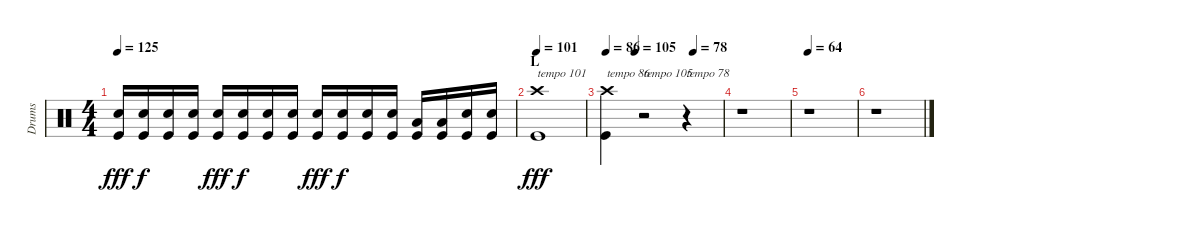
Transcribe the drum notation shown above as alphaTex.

\track ("Drums" "Drums") {instrument percussion}
\staff {score}
\articulation defaults
\ts (4 4)
\tempo 125
\clef neutral
\ks c
("Snare (hit) 2" "Kick (hit)").16{dy fff} ("Snare (hit) 2" "Kick (hit)").16{dy f} ("Snare (hit) 2" "Kick (hit)").16 ("Snare (hit) 2" "Kick (hit)").16 ("Snare (hit) 2" "Kick (hit)").16{dy fff} ("Snare (hit) 2" "Kick (hit)").16{dy f} ("Snare (hit) 2" "Kick (hit)").16 ("Snare (hit) 2" "Kick (hit)").16 ("Snare (hit) 2" "Kick (hit)").16{dy fff} ("Snare (hit) 2" "Kick (hit)").16{dy f} ("Snare (hit) 2" "Kick (hit)").16 ("Snare (hit) 2" "Kick (hit)").16 ("Low Tom (hit)" "Kick (hit)").16 ("Low Tom (hit)" "Kick (hit)").16 ("Snare (hit) 2" "Kick (hit)").16 ("Snare (hit) 2" "Kick (hit)").16 |
\section ("" "L")
\tempo 101
("Crash high (hit)" "Kick (hit)").1{txt "tempo 101" dy fff} |
\tempo 101
\tempo (105 0.25)
\tempo (78 0.75)
\tempo 86
("Crash high (hit)" "Kick (hit)").4{txt "tempo 86"} r.2{txt "tempo 105"} r.4{txt "tempo 78"} |
r.1 |
\tempo 64
r.1 |
r.1
